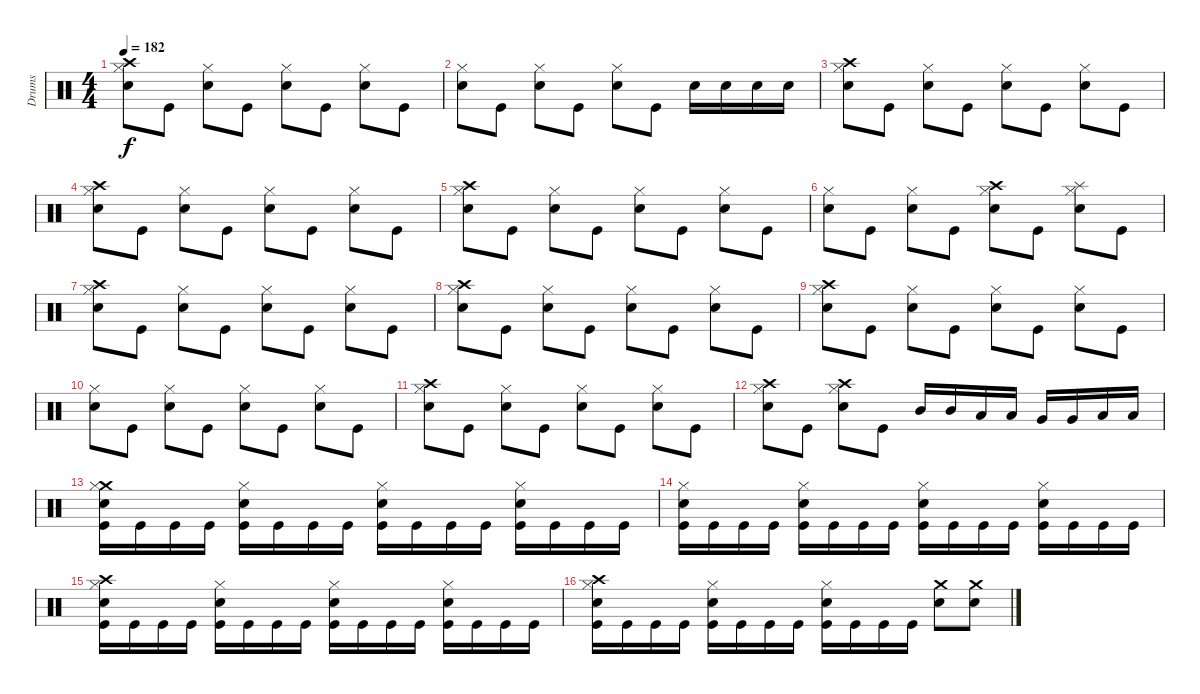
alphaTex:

\track ("Drums" "Drums") {instrument percussion}
\staff {score}
\articulation defaults
\ts (4 4)
\tempo 182
\clef neutral
\ks c
("Crash high (hit)" "Hi-Hat (closed)" "Snare (hit) 2").8{dy f} "Kick (hit)".8 ("Hi-Hat (closed)" "Snare (hit) 2").8 "Kick (hit)".8 ("Hi-Hat (closed)" "Snare (hit) 2").8 "Kick (hit)".8 ("Hi-Hat (closed)" "Snare (hit) 2").8 "Kick (hit)".8 |
("Hi-Hat (closed)" "Snare (hit) 2").8 "Kick (hit)".8 ("Hi-Hat (closed)" "Snare (hit) 2").8 "Kick (hit)".8 ("Hi-Hat (closed)" "Snare (hit) 2").8 "Kick (hit)".8 "Snare (hit) 2".16 "Snare (hit) 2".16 "Snare (hit) 2".16 "Snare (hit) 2".16 |
("Crash high (hit)" "Hi-Hat (closed)" "Snare (hit) 2").8 "Kick (hit)".8 ("Hi-Hat (closed)" "Snare (hit) 2").8 "Kick (hit)".8 ("Hi-Hat (closed)" "Snare (hit) 2").8 "Kick (hit)".8 ("Hi-Hat (closed)" "Snare (hit) 2").8 "Kick (hit)".8 |
("Crash high (hit)" "Hi-Hat (closed)" "Snare (hit) 2").8 "Kick (hit)".8 ("Hi-Hat (closed)" "Snare (hit) 2").8 "Kick (hit)".8 ("Hi-Hat (closed)" "Snare (hit) 2").8 "Kick (hit)".8 ("Hi-Hat (closed)" "Snare (hit) 2").8 "Kick (hit)".8 |
("Crash high (hit)" "Hi-Hat (closed)" "Snare (hit) 2").8 "Kick (hit)".8 ("Hi-Hat (closed)" "Snare (hit) 2").8 "Kick (hit)".8 ("Hi-Hat (closed)" "Snare (hit) 2").8 "Kick (hit)".8 ("Hi-Hat (closed)" "Snare (hit) 2").8 "Kick (hit)".8 |
("Hi-Hat (closed)" "Snare (hit) 2").8 "Kick (hit)".8 ("Hi-Hat (closed)" "Snare (hit) 2").8 "Kick (hit)".8 ("Crash high (hit)" "Hi-Hat (closed)" "Snare (hit) 2").8 "Kick (hit)".8 ("Splash (hit)" "Hi-Hat (closed)" "Snare (hit) 2").8 "Kick (hit)".8 |
("Crash high (hit)" "Hi-Hat (closed)" "Snare (hit) 2").8 "Kick (hit)".8 ("Hi-Hat (closed)" "Snare (hit) 2").8 "Kick (hit)".8 ("Hi-Hat (closed)" "Snare (hit) 2").8 "Kick (hit)".8 ("Hi-Hat (closed)" "Snare (hit) 2").8 "Kick (hit)".8 |
("Crash high (hit)" "Hi-Hat (closed)" "Snare (hit) 2").8 "Kick (hit)".8 ("Hi-Hat (closed)" "Snare (hit) 2").8 "Kick (hit)".8 ("Hi-Hat (closed)" "Snare (hit) 2").8 "Kick (hit)".8 ("Hi-Hat (closed)" "Snare (hit) 2").8 "Kick (hit)".8 |
("Crash high (hit)" "Hi-Hat (closed)" "Snare (hit) 2").8 "Kick (hit)".8 ("Hi-Hat (closed)" "Snare (hit) 2").8 "Kick (hit)".8 ("Hi-Hat (closed)" "Snare (hit) 2").8 "Kick (hit)".8 ("Hi-Hat (closed)" "Snare (hit) 2").8 "Kick (hit)".8 |
("Hi-Hat (closed)" "Snare (hit) 2").8 "Kick (hit)".8 ("Hi-Hat (closed)" "Snare (hit) 2").8 "Kick (hit)".8 ("Hi-Hat (closed)" "Snare (hit) 2").8 "Kick (hit)".8 ("Hi-Hat (closed)" "Snare (hit) 2").8 "Kick (hit)".8 |
("Crash high (hit)" "Hi-Hat (closed)" "Snare (hit) 2").8 "Kick (hit)".8 ("Hi-Hat (closed)" "Snare (hit) 2").8 "Kick (hit)".8 ("Hi-Hat (closed)" "Snare (hit) 2").8 "Kick (hit)".8 ("Hi-Hat (closed)" "Snare (hit) 2").8 "Kick (hit)".8 |
("Crash high (hit)" "Hi-Hat (closed)" "Snare (hit) 2").8 "Kick (hit)".8 ("Crash high (hit)" "Hi-Hat (closed)" "Snare (hit) 2").8 "Kick (hit)".8 "Mid Tom (hit)".16 "Mid Tom (hit)".16 "Low Tom (hit)".16 "Low Tom (hit)".16 "Very Low Tom (hit)".16 "Very Low Tom (hit)".16 "Low Floor Tom (hit)".16 "Low Floor Tom (hit)".16 |
("Crash medium (hit)" "Hi-Hat (closed)" "Snare (hit) 2" "Kick (hit)").16 "Kick (hit)".16 "Kick (hit)".16 "Kick (hit)".16 ("Hi-Hat (closed)" "Snare (hit) 2" "Kick (hit)").16 "Kick (hit)".16 "Kick (hit)".16 "Kick (hit)".16 ("Hi-Hat (closed)" "Snare (hit) 2" "Kick (hit)").16 "Kick (hit)".16 "Kick (hit)".16 "Kick (hit)".16 ("Hi-Hat (closed)" "Snare (hit) 2" "Kick (hit)").16 "Kick (hit)".16 "Kick (hit)".16 "Kick (hit)".16 |
("Hi-Hat (closed)" "Snare (hit) 2" "Kick (hit)").16 "Kick (hit)".16 "Kick (hit)".16 "Kick (hit)".16 ("Hi-Hat (closed)" "Snare (hit) 2" "Kick (hit)").16 "Kick (hit)".16 "Kick (hit)".16 "Kick (hit)".16 ("Hi-Hat (closed)" "Snare (hit) 2" "Kick (hit)").16 "Kick (hit)".16 "Kick (hit)".16 "Kick (hit)".16 ("Hi-Hat (closed)" "Snare (hit) 2" "Kick (hit)").16 "Kick (hit)".16 "Kick (hit)".16 "Kick (hit)".16 |
("Crash high (hit)" "Hi-Hat (closed)" "Snare (hit) 2" "Kick (hit)").16 "Kick (hit)".16 "Kick (hit)".16 "Kick (hit)".16 ("Hi-Hat (closed)" "Snare (hit) 2" "Kick (hit)").16 "Kick (hit)".16 "Kick (hit)".16 "Kick (hit)".16 ("Hi-Hat (closed)" "Snare (hit) 2" "Kick (hit)").16 "Kick (hit)".16 "Kick (hit)".16 "Kick (hit)".16 ("Hi-Hat (closed)" "Snare (hit) 2" "Kick (hit)").16 "Kick (hit)".16 "Kick (hit)".16 "Kick (hit)".16 |
("Crash high (hit)" "Hi-Hat (closed)" "Snare (hit) 2" "Kick (hit)").16 "Kick (hit)".16 "Kick (hit)".16 "Kick (hit)".16 ("Hi-Hat (closed)" "Snare (hit) 2" "Kick (hit)").16 "Kick (hit)".16 "Kick (hit)".16 "Kick (hit)".16 ("Hi-Hat (closed)" "Snare (hit) 2" "Kick (hit)").16 "Kick (hit)".16 "Kick (hit)".16 "Kick (hit)".16 ("Crash medium (hit)" "Snare (hit) 2").8 ("Crash medium (hit)" "Snare (hit) 2").8
